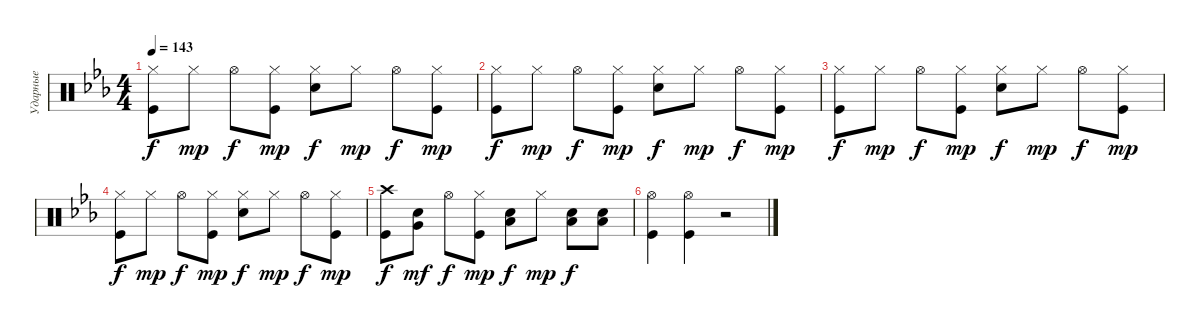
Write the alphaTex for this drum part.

\track ("Ударные" "Ударные") {instrument percussion}
\staff {score}
\articulation defaults
\ts (4 4)
\tempo 143
\clef neutral
\ks cminor
("Kick (hit)" "Hi-Hat (closed)").8{dy f} "Hi-Hat (closed)".8{dy mp} "Hi-Hat (open)".8{dy f} ("Kick (hit)" "Hi-Hat (closed)").8{dy mp} ("Snare (hit) 2" "Hi-Hat (closed)").8{dy f} "Hi-Hat (closed)".8{dy mp} "Hi-Hat (open)".8{dy f} ("Kick (hit)" "Hi-Hat (closed)").8{dy mp} |
("Kick (hit)" "Hi-Hat (closed)").8{dy f} "Hi-Hat (closed)".8{dy mp} "Hi-Hat (open)".8{dy f} ("Kick (hit)" "Hi-Hat (closed)").8{dy mp} ("Snare (hit) 2" "Hi-Hat (closed)").8{dy f} "Hi-Hat (closed)".8{dy mp} "Hi-Hat (open)".8{dy f} ("Kick (hit)" "Hi-Hat (closed)").8{dy mp} |
("Kick (hit)" "Hi-Hat (closed)").8{dy f} "Hi-Hat (closed)".8{dy mp} "Hi-Hat (open)".8{dy f} ("Kick (hit)" "Hi-Hat (closed)").8{dy mp} ("Snare (hit) 2" "Hi-Hat (closed)").8{dy f} "Hi-Hat (closed)".8{dy mp} "Hi-Hat (open)".8{dy f} ("Kick (hit)" "Hi-Hat (closed)").8{dy mp} |
("Kick (hit)" "Hi-Hat (closed)").8{dy f} "Hi-Hat (closed)".8{dy mp} "Hi-Hat (open)".8{dy f} ("Kick (hit)" "Hi-Hat (closed)").8{dy mp} ("Snare (hit) 2" "Hi-Hat (closed)").8{dy f} "Hi-Hat (closed)".8{dy mp} "Hi-Hat (open)".8{dy f} ("Kick (hit)" "Hi-Hat (closed)").8{dy mp} |
("Kick (hit)" "Crash high (hit)").8{dy f} ("Snare (hit) 2" "Very Low Tom (hit)").8{dy mf} "Hi-Hat (open)".8{dy f} ("Kick (hit)" "Hi-Hat (closed)").8{dy mp} ("Snare (hit) 2" "Low Tom (hit)").8{dy f} "Hi-Hat (closed)".8{dy mp} ("Snare (hit) 2" "Low Tom (hit)").8{dy f} ("Low Tom (hit)" "Snare (hit) 2").8 |
("Kick (hit)" "Hi-Hat (open)").4 ("Kick (hit)" "Hi-Hat (open)").4 r.2
